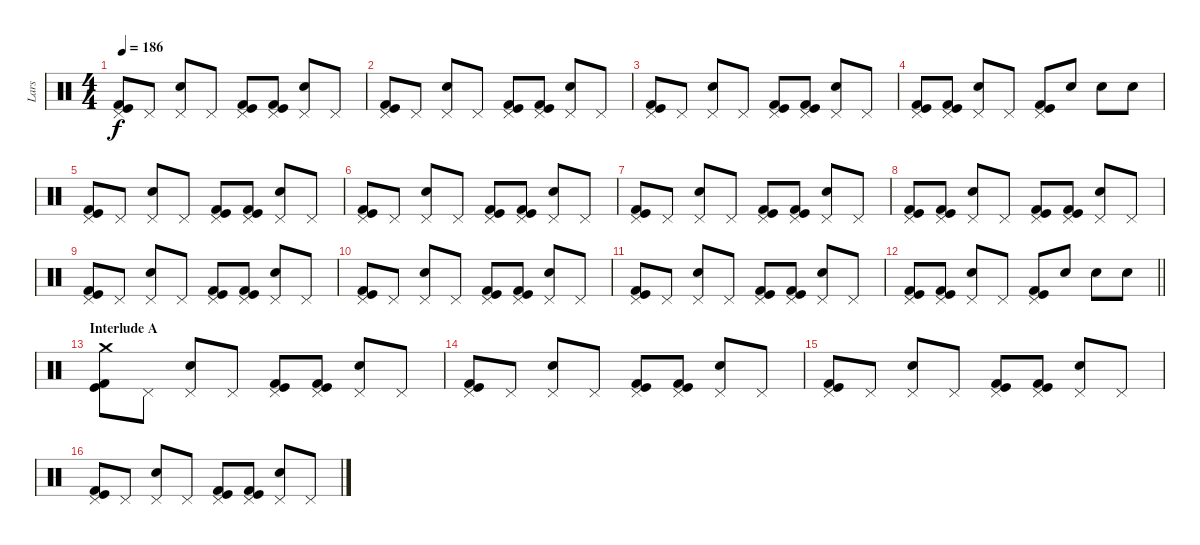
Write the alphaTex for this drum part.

\track ("Lars" "Lars") {instrument percussion}
\staff {score}
\articulation defaults
\ts (4 4)
\tempo 186
\clef neutral
\ks c
("Pedal Hi-Hat (hit)" "Kick (hit)" "Kick (hit) 2").8{dy f} "Pedal Hi-Hat (hit)".8 ("Pedal Hi-Hat (hit)" "Electric Snare (hit)").8 "Pedal Hi-Hat (hit)".8 ("Pedal Hi-Hat (hit)" "Kick (hit)" "Kick (hit) 2").8 ("Pedal Hi-Hat (hit)" "Kick (hit)" "Kick (hit) 2").8 ("Pedal Hi-Hat (hit)" "Electric Snare (hit)").8 "Pedal Hi-Hat (hit)".8 |
("Pedal Hi-Hat (hit)" "Kick (hit)" "Kick (hit) 2").8 "Pedal Hi-Hat (hit)".8 ("Pedal Hi-Hat (hit)" "Electric Snare (hit)").8 "Pedal Hi-Hat (hit)".8 ("Pedal Hi-Hat (hit)" "Kick (hit)" "Kick (hit) 2").8 ("Pedal Hi-Hat (hit)" "Kick (hit)" "Kick (hit) 2").8 ("Pedal Hi-Hat (hit)" "Electric Snare (hit)").8 "Pedal Hi-Hat (hit)".8 |
("Pedal Hi-Hat (hit)" "Kick (hit)" "Kick (hit) 2").8 "Pedal Hi-Hat (hit)".8 ("Pedal Hi-Hat (hit)" "Electric Snare (hit)").8 "Pedal Hi-Hat (hit)".8 ("Pedal Hi-Hat (hit)" "Kick (hit)" "Kick (hit) 2").8 ("Pedal Hi-Hat (hit)" "Kick (hit)" "Kick (hit) 2").8 ("Pedal Hi-Hat (hit)" "Electric Snare (hit)").8 "Pedal Hi-Hat (hit)".8 |
("Pedal Hi-Hat (hit)" "Kick (hit)" "Kick (hit) 2").8 ("Pedal Hi-Hat (hit)" "Kick (hit)" "Kick (hit) 2").8 ("Pedal Hi-Hat (hit)" "Electric Snare (hit)").8 "Pedal Hi-Hat (hit)".8 ("Pedal Hi-Hat (hit)" "Kick (hit)" "Kick (hit) 2").8 "Electric Snare (hit)".8 "Electric Snare (hit)".8 "Electric Snare (hit)".8 |
("Pedal Hi-Hat (hit)" "Kick (hit)" "Kick (hit) 2").8 "Pedal Hi-Hat (hit)".8 ("Pedal Hi-Hat (hit)" "Electric Snare (hit)").8 "Pedal Hi-Hat (hit)".8 ("Pedal Hi-Hat (hit)" "Kick (hit)" "Kick (hit) 2").8 ("Pedal Hi-Hat (hit)" "Kick (hit)" "Kick (hit) 2").8 ("Pedal Hi-Hat (hit)" "Electric Snare (hit)").8 "Pedal Hi-Hat (hit)".8 |
("Pedal Hi-Hat (hit)" "Kick (hit)" "Kick (hit) 2").8 "Pedal Hi-Hat (hit)".8 ("Pedal Hi-Hat (hit)" "Electric Snare (hit)").8 "Pedal Hi-Hat (hit)".8 ("Pedal Hi-Hat (hit)" "Kick (hit)" "Kick (hit) 2").8 ("Pedal Hi-Hat (hit)" "Kick (hit)" "Kick (hit) 2").8 ("Pedal Hi-Hat (hit)" "Electric Snare (hit)").8 "Pedal Hi-Hat (hit)".8 |
("Pedal Hi-Hat (hit)" "Kick (hit)" "Kick (hit) 2").8 "Pedal Hi-Hat (hit)".8 ("Pedal Hi-Hat (hit)" "Electric Snare (hit)").8 "Pedal Hi-Hat (hit)".8 ("Pedal Hi-Hat (hit)" "Kick (hit)" "Kick (hit) 2").8 ("Pedal Hi-Hat (hit)" "Kick (hit)" "Kick (hit) 2").8 ("Pedal Hi-Hat (hit)" "Electric Snare (hit)").8 "Pedal Hi-Hat (hit)".8 |
("Pedal Hi-Hat (hit)" "Kick (hit)" "Kick (hit) 2").8 ("Pedal Hi-Hat (hit)" "Kick (hit)" "Kick (hit) 2").8 ("Pedal Hi-Hat (hit)" "Electric Snare (hit)").8 "Pedal Hi-Hat (hit)".8 ("Pedal Hi-Hat (hit)" "Kick (hit)" "Kick (hit) 2").8 ("Pedal Hi-Hat (hit)" "Kick (hit)" "Kick (hit) 2").8 ("Pedal Hi-Hat (hit)" "Electric Snare (hit)").8 "Pedal Hi-Hat (hit)".8 |
("Pedal Hi-Hat (hit)" "Kick (hit)" "Kick (hit) 2").8 "Pedal Hi-Hat (hit)".8 ("Pedal Hi-Hat (hit)" "Electric Snare (hit)").8 "Pedal Hi-Hat (hit)".8 ("Pedal Hi-Hat (hit)" "Kick (hit)" "Kick (hit) 2").8 ("Pedal Hi-Hat (hit)" "Kick (hit)" "Kick (hit) 2").8 ("Pedal Hi-Hat (hit)" "Electric Snare (hit)").8 "Pedal Hi-Hat (hit)".8 |
("Pedal Hi-Hat (hit)" "Kick (hit)" "Kick (hit) 2").8 "Pedal Hi-Hat (hit)".8 ("Pedal Hi-Hat (hit)" "Electric Snare (hit)").8 "Pedal Hi-Hat (hit)".8 ("Pedal Hi-Hat (hit)" "Kick (hit)" "Kick (hit) 2").8 ("Pedal Hi-Hat (hit)" "Kick (hit)" "Kick (hit) 2").8 ("Pedal Hi-Hat (hit)" "Electric Snare (hit)").8 "Pedal Hi-Hat (hit)".8 |
("Pedal Hi-Hat (hit)" "Kick (hit)" "Kick (hit) 2").8 "Pedal Hi-Hat (hit)".8 ("Pedal Hi-Hat (hit)" "Electric Snare (hit)").8 "Pedal Hi-Hat (hit)".8 ("Pedal Hi-Hat (hit)" "Kick (hit)" "Kick (hit) 2").8 ("Pedal Hi-Hat (hit)" "Kick (hit)" "Kick (hit) 2").8 ("Pedal Hi-Hat (hit)" "Electric Snare (hit)").8 "Pedal Hi-Hat (hit)".8 |
\barLineRight lightlight
("Pedal Hi-Hat (hit)" "Kick (hit)" "Kick (hit) 2").8 ("Pedal Hi-Hat (hit)" "Kick (hit)" "Kick (hit) 2").8 ("Pedal Hi-Hat (hit)" "Electric Snare (hit)").8 "Pedal Hi-Hat (hit)".8 ("Pedal Hi-Hat (hit)" "Kick (hit)" "Kick (hit) 2").8 "Electric Snare (hit)".8 "Electric Snare (hit)".8 "Electric Snare (hit)".8 |
\section ("" "Interlude A")
("Crash medium (hit)" "Kick (hit)" "Kick (hit) 2").8 "Pedal Hi-Hat (hit)".8 ("Pedal Hi-Hat (hit)" "Electric Snare (hit)").8 "Pedal Hi-Hat (hit)".8 ("Pedal Hi-Hat (hit)" "Kick (hit)" "Kick (hit) 2").8 ("Pedal Hi-Hat (hit)" "Kick (hit)" "Kick (hit) 2").8 ("Pedal Hi-Hat (hit)" "Electric Snare (hit)").8 "Pedal Hi-Hat (hit)".8 |
("Pedal Hi-Hat (hit)" "Kick (hit)" "Kick (hit) 2").8 "Pedal Hi-Hat (hit)".8 ("Pedal Hi-Hat (hit)" "Electric Snare (hit)").8 "Pedal Hi-Hat (hit)".8 ("Pedal Hi-Hat (hit)" "Kick (hit)" "Kick (hit) 2").8 ("Pedal Hi-Hat (hit)" "Kick (hit)" "Kick (hit) 2").8 ("Pedal Hi-Hat (hit)" "Electric Snare (hit)").8 "Pedal Hi-Hat (hit)".8 |
("Pedal Hi-Hat (hit)" "Kick (hit)" "Kick (hit) 2").8 "Pedal Hi-Hat (hit)".8 ("Pedal Hi-Hat (hit)" "Electric Snare (hit)").8 "Pedal Hi-Hat (hit)".8 ("Pedal Hi-Hat (hit)" "Kick (hit)" "Kick (hit) 2").8 ("Pedal Hi-Hat (hit)" "Kick (hit)" "Kick (hit) 2").8 ("Pedal Hi-Hat (hit)" "Electric Snare (hit)").8 "Pedal Hi-Hat (hit)".8 |
("Pedal Hi-Hat (hit)" "Kick (hit)" "Kick (hit) 2").8 "Pedal Hi-Hat (hit)".8 ("Pedal Hi-Hat (hit)" "Electric Snare (hit)").8 "Pedal Hi-Hat (hit)".8 ("Pedal Hi-Hat (hit)" "Kick (hit)" "Kick (hit) 2").8 ("Pedal Hi-Hat (hit)" "Kick (hit)" "Kick (hit) 2").8 ("Pedal Hi-Hat (hit)" "Electric Snare (hit)").8 "Pedal Hi-Hat (hit)".8
